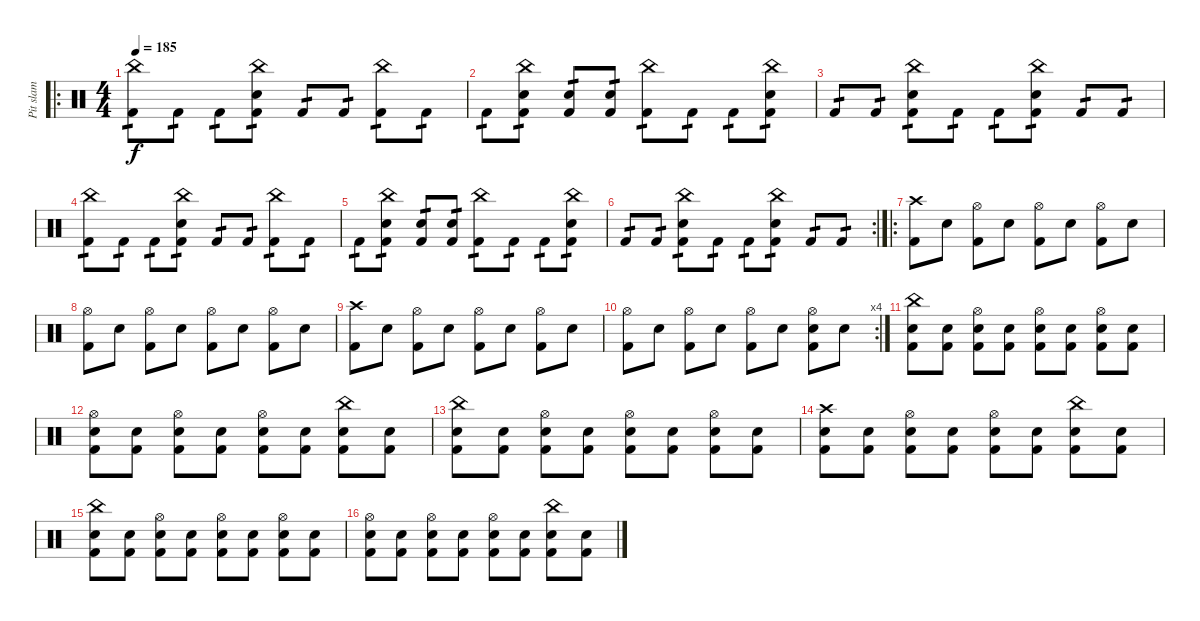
\track ("Pit slam" "Pit slam") {instrument percussion}
\staff {score}
\articulation defaults
\ro
\ts (4 4)
\tempo 185
\clef neutral
\ks c
("China (hit)" "Kick (hit) 2").8{tp 1 dy f} "Kick (hit) 2".8{tp 1} "Kick (hit) 2".8{tp 1} ("China (hit)" "Electric Snare (hit)" "Kick (hit) 2").8{tp 1} "Kick (hit) 2".8{tp 1} "Kick (hit) 2".8{tp 1} ("China (hit)" "Kick (hit) 2").8{tp 1} "Kick (hit) 2".8{tp 1} |
"Kick (hit) 2".8{tp 1} ("China (hit)" "Electric Snare (hit)" "Kick (hit) 2").8{tp 1} ("Electric Snare (hit)" "Kick (hit) 2").8{tp 1} ("Electric Snare (hit)" "Kick (hit) 2").8{tp 1} ("China (hit)" "Kick (hit) 2").8{tp 1} "Kick (hit) 2".8{tp 1} "Kick (hit) 2".8{tp 1} ("China (hit)" "Electric Snare (hit)" "Kick (hit) 2").8{tp 1} |
"Kick (hit) 2".8{tp 1} "Kick (hit) 2".8{tp 1} ("China (hit)" "Electric Snare (hit)" "Kick (hit) 2").8{tp 1} "Kick (hit) 2".8{tp 1} "Kick (hit) 2".8{tp 1} ("China (hit)" "Electric Snare (hit)" "Kick (hit) 2").8{tp 1} "Kick (hit) 2".8{tp 1} "Kick (hit) 2".8{tp 1} |
("China (hit)" "Kick (hit) 2").8{tp 1} "Kick (hit) 2".8{tp 1} "Kick (hit) 2".8{tp 1} ("China (hit)" "Electric Snare (hit)" "Kick (hit) 2").8{tp 1} "Kick (hit) 2".8{tp 1} "Kick (hit) 2".8{tp 1} ("China (hit)" "Kick (hit) 2").8{tp 1} "Kick (hit) 2".8{tp 1} |
"Kick (hit) 2".8{tp 1} ("China (hit)" "Electric Snare (hit)" "Kick (hit) 2").8{tp 1} ("Electric Snare (hit)" "Kick (hit) 2").8{tp 1} ("Electric Snare (hit)" "Kick (hit) 2").8{tp 1} ("China (hit)" "Kick (hit) 2").8{tp 1} "Kick (hit) 2".8{tp 1} "Kick (hit) 2".8{tp 1} ("China (hit)" "Electric Snare (hit)" "Kick (hit) 2").8{tp 1} |
\rc 2 "Kick (hit) 2".8{tp 1} "Kick (hit) 2".8{tp 1}
("China (hit)" "Electric Snare (hit)" "Kick (hit) 2").8{tp 1} "Kick (hit) 2".8{tp 1} "Kick (hit) 2".8{tp 1} ("China (hit)" "Electric Snare (hit)" "Kick (hit) 2").8{tp 1} "Kick (hit) 2".8{tp 1} "Kick (hit) 2".8{tp 1} |
\ro
("Crash high (hit)" "Kick (hit) 2").8 "Electric Snare (hit)".8 ("Hi-Hat (open)" "Kick (hit) 2").8 "Electric Snare (hit)".8 ("Hi-Hat (open)" "Kick (hit) 2").8 "Electric Snare (hit)".8 ("Hi-Hat (open)" "Kick (hit) 2").8 "Electric Snare (hit)".8 |
("Hi-Hat (open)" "Kick (hit) 2").8 "Electric Snare (hit)".8 ("Hi-Hat (open)" "Kick (hit) 2").8 "Electric Snare (hit)".8 ("Hi-Hat (open)" "Kick (hit) 2").8 "Electric Snare (hit)".8 ("Hi-Hat (open)" "Kick (hit) 2").8 "Electric Snare (hit)".8 |
("Crash high (hit)" "Kick (hit) 2").8 "Electric Snare (hit)".8 ("Hi-Hat (open)" "Kick (hit) 2").8 "Electric Snare (hit)".8 ("Hi-Hat (open)" "Kick (hit) 2").8 "Electric Snare (hit)".8 ("Hi-Hat (open)" "Kick (hit) 2").8 "Electric Snare (hit)".8 |
\rc 4
("Hi-Hat (open)" "Kick (hit) 2").8 "Electric Snare (hit)".8 ("Hi-Hat (open)" "Kick (hit) 2").8 "Electric Snare (hit)".8 ("Hi-Hat (open)" "Kick (hit) 2").8 "Electric Snare (hit)".8 ("Hi-Hat (open)" "Electric Snare (hit)" "Kick (hit) 2").8 "Electric Snare (hit)".8 |
("China (hit)" "Electric Snare (hit)" "Kick (hit) 2").8 ("Electric Snare (hit)" "Kick (hit) 2").8 ("Hi-Hat (open)" "Electric Snare (hit)" "Kick (hit) 2").8 ("Electric Snare (hit)" "Kick (hit) 2").8 ("Hi-Hat (open)" "Electric Snare (hit)" "Kick (hit) 2").8 ("Electric Snare (hit)" "Kick (hit) 2").8 ("Hi-Hat (open)" "Electric Snare (hit)" "Kick (hit) 2").8 ("Electric Snare (hit)" "Kick (hit) 2").8 |
("Hi-Hat (open)" "Electric Snare (hit)" "Kick (hit) 2").8 ("Electric Snare (hit)" "Kick (hit) 2").8 ("Hi-Hat (open)" "Electric Snare (hit)" "Kick (hit) 2").8 ("Electric Snare (hit)" "Kick (hit) 2").8 ("Hi-Hat (open)" "Electric Snare (hit)" "Kick (hit) 2").8 ("Electric Snare (hit)" "Kick (hit) 2").8 ("China (hit)" "Electric Snare (hit)" "Kick (hit) 2").8 ("Electric Snare (hit)" "Kick (hit) 2").8 |
("China (hit)" "Electric Snare (hit)" "Kick (hit) 2").8 ("Electric Snare (hit)" "Kick (hit) 2").8 ("Hi-Hat (open)" "Electric Snare (hit)" "Kick (hit) 2").8 ("Electric Snare (hit)" "Kick (hit) 2").8 ("Hi-Hat (open)" "Electric Snare (hit)" "Kick (hit) 2").8 ("Electric Snare (hit)" "Kick (hit) 2").8 ("Hi-Hat (open)" "Electric Snare (hit)" "Kick (hit) 2").8 ("Electric Snare (hit)" "Kick (hit) 2").8 |
("Crash high (hit)" "Electric Snare (hit)" "Kick (hit) 2").8 ("Electric Snare (hit)" "Kick (hit) 2").8 ("Hi-Hat (open)" "Electric Snare (hit)" "Kick (hit) 2").8 ("Electric Snare (hit)" "Kick (hit) 2").8 ("Hi-Hat (open)" "Electric Snare (hit)" "Kick (hit) 2").8 ("Electric Snare (hit)" "Kick (hit) 2").8 ("China (hit)" "Electric Snare (hit)" "Kick (hit) 2").8 ("Electric Snare (hit)" "Kick (hit) 2").8 |
("China (hit)" "Electric Snare (hit)" "Kick (hit) 2").8 ("Electric Snare (hit)" "Kick (hit) 2").8 ("Hi-Hat (open)" "Electric Snare (hit)" "Kick (hit) 2").8 ("Electric Snare (hit)" "Kick (hit) 2").8 ("Hi-Hat (open)" "Electric Snare (hit)" "Kick (hit) 2").8 ("Electric Snare (hit)" "Kick (hit) 2").8 ("Hi-Hat (open)" "Electric Snare (hit)" "Kick (hit) 2").8 ("Electric Snare (hit)" "Kick (hit) 2").8 |
("Hi-Hat (open)" "Electric Snare (hit)" "Kick (hit) 2").8 ("Electric Snare (hit)" "Kick (hit) 2").8 ("Hi-Hat (open)" "Electric Snare (hit)" "Kick (hit) 2").8 ("Electric Snare (hit)" "Kick (hit) 2").8 ("Hi-Hat (open)" "Electric Snare (hit)" "Kick (hit) 2").8 ("Electric Snare (hit)" "Kick (hit) 2").8 ("China (hit)" "Electric Snare (hit)" "Kick (hit) 2").8 ("Electric Snare (hit)" "Kick (hit) 2").8
